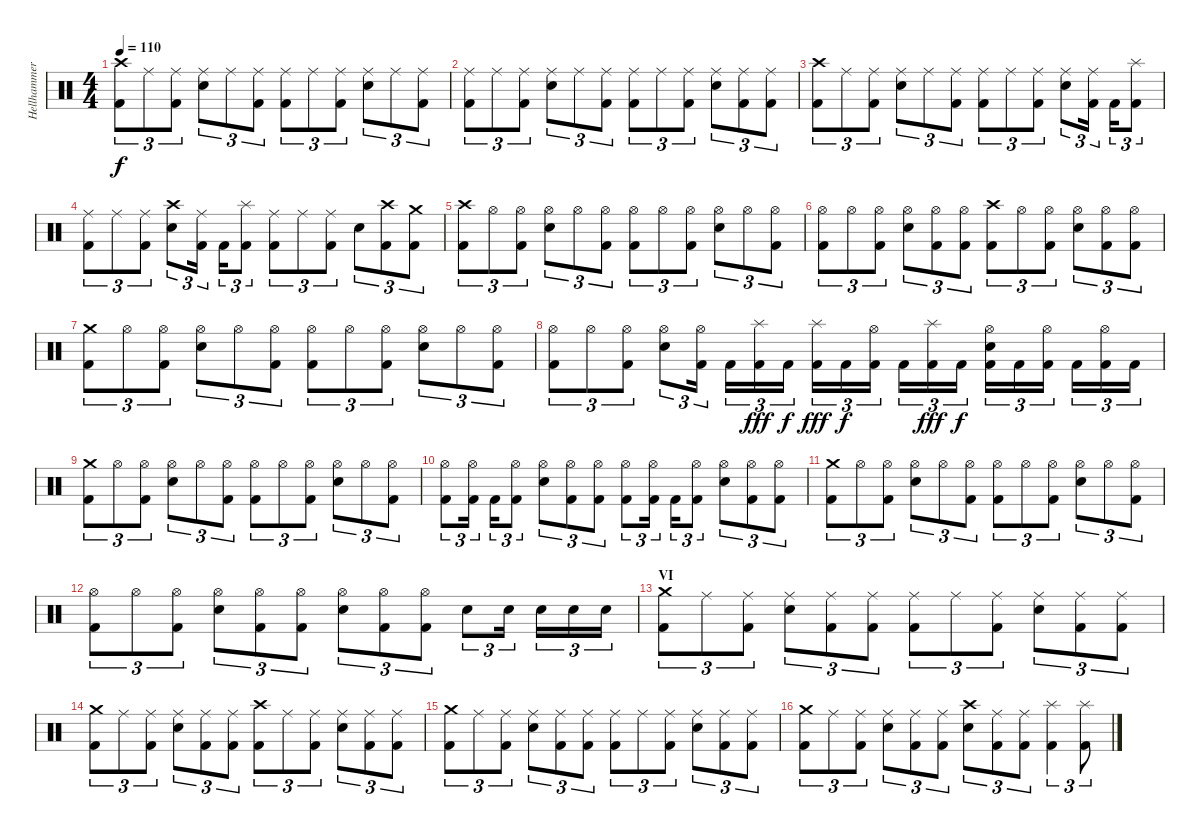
\track ("Hellhammer" "Hellhammer") {instrument percussion}
\staff {score}
\articulation defaults
\ts (4 4)
\tempo 110
\clef neutral
\ks c
("Kick (hit) 2" "Crash high (hit)").8{tu (3 2) dy f} "Ride (middle)".8{tu (3 2)} ("Kick (hit) 2" "Ride (middle)").8{tu (3 2)} ("Electric Snare (hit)" "Ride (middle)").8{tu (3 2)} "Ride (middle)".8{tu (3 2)} ("Kick (hit) 2" "Ride (middle)").8{tu (3 2)} ("Kick (hit) 2" "Ride (middle)").8{tu (3 2)} "Ride (middle)".8{tu (3 2)} ("Kick (hit) 2" "Ride (middle)").8{tu (3 2)} ("Electric Snare (hit)" "Ride (middle)").8{tu (3 2)} "Ride (middle)".8{tu (3 2)} ("Kick (hit) 2" "Ride (middle)").8{tu (3 2)} |
("Kick (hit) 2" "Ride (middle)").8{tu (3 2)} "Ride (middle)".8{tu (3 2)} ("Kick (hit) 2" "Ride (middle)").8{tu (3 2)} ("Electric Snare (hit)" "Ride (middle)").8{tu (3 2)} "Ride (middle)".8{tu (3 2)} ("Kick (hit) 2" "Ride (middle)").8{tu (3 2)} ("Kick (hit) 2" "Ride (middle)").8{tu (3 2)} "Ride (middle)".8{tu (3 2)} ("Kick (hit) 2" "Ride (middle)").8{tu (3 2)} ("Electric Snare (hit)" "Ride (middle)").8{tu (3 2)} ("Kick (hit) 2" "Ride (middle)").8{tu (3 2)} ("Kick (hit) 2" "Ride (middle)").8{tu (3 2)} |
("Kick (hit) 2" "Crash high (hit)").8{tu (3 2)} "Ride (middle)".8{tu (3 2)} ("Kick (hit) 2" "Ride (middle)").8{tu (3 2)} ("Electric Snare (hit)" "Ride (middle)").8{tu (3 2)} "Ride (middle)".8{tu (3 2)} ("Kick (hit) 2" "Ride (middle)").8{tu (3 2)} ("Kick (hit) 2" "Ride (middle)").8{tu (3 2)} "Ride (middle)".8{tu (3 2)} ("Kick (hit) 2" "Ride (middle)").8{tu (3 2)} ("Electric Snare (hit)" "Ride (middle)").8{tu (3 2)} ("Kick (hit) 2" "Ride (middle)").16{tu (3 2)} "Kick (hit) 2".16{tu (3 2)} ("Kick (hit) 2" "Splash (hit)").8{tu (3 2)} |
("Kick (hit) 2" "Ride (middle)").8{tu (3 2)} "Ride (middle)".8{tu (3 2)} ("Kick (hit) 2" "Ride (middle)").8{tu (3 2)} ("Electric Snare (hit)" "Crash high (hit)").8{tu (3 2)} ("Kick (hit) 2" "Ride (middle)").16{tu (3 2)} "Kick (hit) 2".16{tu (3 2)} ("Kick (hit) 2" "Splash (hit)").8{tu (3 2)} ("Kick (hit) 2" "Ride (middle)").8{tu (3 2)} "Ride (middle)".8{tu (3 2)} ("Kick (hit) 2" "Ride (middle)").8{tu (3 2)} "Electric Snare (hit)".8{tu (3 2)} ("Kick (hit) 2" "Crash high (hit)").8{tu (3 2)} ("Kick (hit) 2" "Crash medium (hit)").8{tu (3 2)} |
("Kick (hit) 2" "Crash high (hit)").8{tu (3 2)} "Hi-Hat (open)".8{tu (3 2)} ("Kick (hit) 2" "Hi-Hat (open)").8{tu (3 2)} ("Electric Snare (hit)" "Hi-Hat (open)").8{tu (3 2)} "Hi-Hat (open)".8{tu (3 2)} ("Kick (hit) 2" "Hi-Hat (open)").8{tu (3 2)} ("Kick (hit) 2" "Hi-Hat (open)").8{tu (3 2)} "Hi-Hat (open)".8{tu (3 2)} ("Kick (hit) 2" "Hi-Hat (open)").8{tu (3 2)} ("Electric Snare (hit)" "Hi-Hat (open)").8{tu (3 2)} "Hi-Hat (open)".8{tu (3 2)} ("Kick (hit) 2" "Hi-Hat (open)").8{tu (3 2)} |
("Kick (hit) 2" "Hi-Hat (open)").8{tu (3 2)} "Hi-Hat (open)".8{tu (3 2)} ("Kick (hit) 2" "Hi-Hat (open)").8{tu (3 2)} ("Electric Snare (hit)" "Hi-Hat (open)").8{tu (3 2)} ("Kick (hit) 2" "Hi-Hat (open)").8{tu (3 2)} ("Kick (hit) 2" "Hi-Hat (open)").8{tu (3 2)} ("Kick (hit) 2" "Crash high (hit)").8{tu (3 2)} "Hi-Hat (open)".8{tu (3 2)} ("Kick (hit) 2" "Hi-Hat (open)").8{tu (3 2)} ("Electric Snare (hit)" "Hi-Hat (open)").8{tu (3 2)} ("Kick (hit) 2" "Hi-Hat (open)").8{tu (3 2)} ("Kick (hit) 2" "Hi-Hat (open)").8{tu (3 2)} |
("Kick (hit) 2" "Crash medium (hit)").8{tu (3 2)} "Hi-Hat (open)".8{tu (3 2)} ("Kick (hit) 2" "Hi-Hat (open)").8{tu (3 2)} ("Electric Snare (hit)" "Hi-Hat (open)").8{tu (3 2)} "Hi-Hat (open)".8{tu (3 2)} ("Kick (hit) 2" "Hi-Hat (open)").8{tu (3 2)} ("Kick (hit) 2" "Hi-Hat (open)").8{tu (3 2)} "Hi-Hat (open)".8{tu (3 2)} ("Kick (hit) 2" "Hi-Hat (open)").8{tu (3 2)} ("Electric Snare (hit)" "Hi-Hat (open)").8{tu (3 2)} "Hi-Hat (open)".8{tu (3 2)} ("Kick (hit) 2" "Hi-Hat (open)").8{tu (3 2)} |
("Kick (hit) 2" "Hi-Hat (open)").8{tu (3 2)} "Hi-Hat (open)".8{tu (3 2)} ("Kick (hit) 2" "Hi-Hat (open)").8{tu (3 2)} ("Electric Snare (hit)" "Hi-Hat (open)").8{tu (3 2)} ("Kick (hit) 2" "Hi-Hat (open)").16{tu (3 2)} "Kick (hit) 2".16{tu (3 2)} ("Kick (hit) 2" "Splash (hit)").16{tu (3 2) dy fff} "Kick (hit) 2".16{tu (3 2) dy f} ("Kick (hit) 2" "Splash (hit)").16{tu (3 2) dy fff} "Kick (hit) 2".16{tu (3 2) dy f} ("Kick (hit) 2" "Hi-Hat (open)").16{tu (3 2)} "Kick (hit) 2".16{tu (3 2)} ("Kick (hit) 2" "Splash (hit)").16{tu (3 2) dy fff} "Kick (hit) 2".16{tu (3 2) dy f} ("Kick (hit) 2" "Electric Snare (hit)" "Hi-Hat (open)").16{tu (3 2)} "Kick (hit) 2".16{tu (3 2)} ("Kick (hit) 2" "Hi-Hat (open)").16{tu (3 2)} "Kick (hit) 2".16{tu (3 2)} ("Kick (hit) 2" "Hi-Hat (open)").16{tu (3 2)} "Kick (hit) 2".16{tu (3 2)} |
("Kick (hit) 2" "Crash medium (hit)").8{tu (3 2)} "Hi-Hat (open)".8{tu (3 2)} ("Kick (hit) 2" "Hi-Hat (open)").8{tu (3 2)} ("Electric Snare (hit)" "Hi-Hat (open)").8{tu (3 2)} "Hi-Hat (open)".8{tu (3 2)} ("Kick (hit) 2" "Hi-Hat (open)").8{tu (3 2)} ("Kick (hit) 2" "Hi-Hat (open)").8{tu (3 2)} "Hi-Hat (open)".8{tu (3 2)} ("Kick (hit) 2" "Hi-Hat (open)").8{tu (3 2)} ("Electric Snare (hit)" "Hi-Hat (open)").8{tu (3 2)} "Hi-Hat (open)".8{tu (3 2)} ("Kick (hit) 2" "Hi-Hat (open)").8{tu (3 2)} |
("Kick (hit) 2" "Hi-Hat (open)").8{tu (3 2)} ("Kick (hit) 2" "Hi-Hat (open)").16{tu (3 2)} "Kick (hit) 2".16{tu (3 2)} ("Kick (hit) 2" "Hi-Hat (open)").8{tu (3 2)} ("Electric Snare (hit)" "Hi-Hat (open)").8{tu (3 2)} ("Kick (hit) 2" "Hi-Hat (open)").8{tu (3 2)} ("Kick (hit) 2" "Hi-Hat (open)").8{tu (3 2)} ("Kick (hit) 2" "Hi-Hat (open)").8{tu (3 2)} ("Kick (hit) 2" "Hi-Hat (open)").16{tu (3 2)} "Kick (hit) 2".16{tu (3 2)} ("Kick (hit) 2" "Hi-Hat (open)").8{tu (3 2)} ("Electric Snare (hit)" "Hi-Hat (open)").8{tu (3 2)} ("Kick (hit) 2" "Hi-Hat (open)").8{tu (3 2)} ("Kick (hit) 2" "Hi-Hat (open)").8{tu (3 2)} |
("Kick (hit) 2" "Crash medium (hit)").8{tu (3 2)} "Hi-Hat (open)".8{tu (3 2)} ("Kick (hit) 2" "Hi-Hat (open)").8{tu (3 2)} ("Electric Snare (hit)" "Hi-Hat (open)").8{tu (3 2)} "Hi-Hat (open)".8{tu (3 2)} ("Kick (hit) 2" "Hi-Hat (open)").8{tu (3 2)} ("Kick (hit) 2" "Hi-Hat (open)").8{tu (3 2)} "Hi-Hat (open)".8{tu (3 2)} ("Kick (hit) 2" "Hi-Hat (open)").8{tu (3 2)} ("Electric Snare (hit)" "Hi-Hat (open)").8{tu (3 2)} "Hi-Hat (open)".8{tu (3 2)} ("Kick (hit) 2" "Hi-Hat (open)").8{tu (3 2)} |
("Kick (hit) 2" "Hi-Hat (open)").8{tu (3 2)} "Hi-Hat (open)".8{tu (3 2)} ("Kick (hit) 2" "Hi-Hat (open)").8{tu (3 2)} ("Electric Snare (hit)" "Hi-Hat (open)").8{tu (3 2)} ("Kick (hit) 2" "Hi-Hat (open)").8{tu (3 2)} ("Kick (hit) 2" "Hi-Hat (open)").8{tu (3 2)} ("Electric Snare (hit)" "Hi-Hat (open)").8{tu (3 2)} ("Kick (hit) 2" "Hi-Hat (open)").8{tu (3 2)} ("Kick (hit) 2" "Hi-Hat (open)").8{tu (3 2)} "Electric Snare (hit)".8{tu (3 2)} "Electric Snare (hit)".16{tu (3 2)} "Electric Snare (hit)".16{tu (3 2)} "Electric Snare (hit)".16{tu (3 2)} "Electric Snare (hit)".16{tu (3 2)} |
\section ("" "VI")
("Kick (hit) 2" "Crash medium (hit)").8{tu (3 2)} "Ride (middle)".8{tu (3 2)} ("Kick (hit) 2" "Ride (middle)").8{tu (3 2)} ("Electric Snare (hit)" "Ride (middle)").8{tu (3 2)} ("Kick (hit) 2" "Ride (middle)").8{tu (3 2)} ("Kick (hit) 2" "Ride (middle)").8{tu (3 2)} ("Kick (hit) 2" "Ride (middle)").8{tu (3 2)} "Ride (middle)".8{tu (3 2)} ("Kick (hit) 2" "Ride (middle)").8{tu (3 2)} ("Electric Snare (hit)" "Ride (middle)").8{tu (3 2)} ("Kick (hit) 2" "Ride (middle)").8{tu (3 2)} ("Kick (hit) 2" "Ride (middle)").8{tu (3 2)} |
("Kick (hit) 2" "Crash medium (hit)").8{tu (3 2)} "Ride (middle)".8{tu (3 2)} ("Kick (hit) 2" "Ride (middle)").8{tu (3 2)} ("Electric Snare (hit)" "Ride (middle)").8{tu (3 2)} ("Kick (hit) 2" "Ride (middle)").8{tu (3 2)} ("Kick (hit) 2" "Ride (middle)").8{tu (3 2)} ("Kick (hit) 2" "Crash high (hit)").8{tu (3 2)} "Ride (middle)".8{tu (3 2)} ("Kick (hit) 2" "Ride (middle)").8{tu (3 2)} ("Electric Snare (hit)" "Ride (middle)").8{tu (3 2)} ("Kick (hit) 2" "Ride (middle)").8{tu (3 2)} ("Kick (hit) 2" "Ride (middle)").8{tu (3 2)} |
("Kick (hit) 2" "Crash medium (hit)").8{tu (3 2)} "Ride (middle)".8{tu (3 2)} ("Kick (hit) 2" "Ride (middle)").8{tu (3 2)} ("Electric Snare (hit)" "Ride (middle)").8{tu (3 2)} ("Kick (hit) 2" "Ride (middle)").8{tu (3 2)} ("Kick (hit) 2" "Ride (middle)").8{tu (3 2)} ("Kick (hit) 2" "Ride (middle)").8{tu (3 2)} "Ride (middle)".8{tu (3 2)} ("Kick (hit) 2" "Ride (middle)").8{tu (3 2)} ("Electric Snare (hit)" "Ride (middle)").8{tu (3 2)} ("Kick (hit) 2" "Ride (middle)").8{tu (3 2)} ("Kick (hit) 2" "Ride (middle)").8{tu (3 2)} |
("Kick (hit) 2" "Crash medium (hit)").8{tu (3 2)} "Ride (middle)".8{tu (3 2)} ("Kick (hit) 2" "Ride (middle)").8{tu (3 2)} ("Electric Snare (hit)" "Ride (middle)").8{tu (3 2)} ("Kick (hit) 2" "Ride (middle)").8{tu (3 2)} ("Kick (hit) 2" "Ride (middle)").8{tu (3 2)} ("Electric Snare (hit)" "Crash high (hit)").8{tu (3 2)} ("Kick (hit) 2" "Ride (middle)").8{tu (3 2)} ("Kick (hit) 2" "Ride (middle)").8{tu (3 2)} ("Kick (hit) 2" "Splash (hit)").4{tu (3 2)} ("Kick (hit) 2" "Splash (hit)").8{tu (3 2)}
